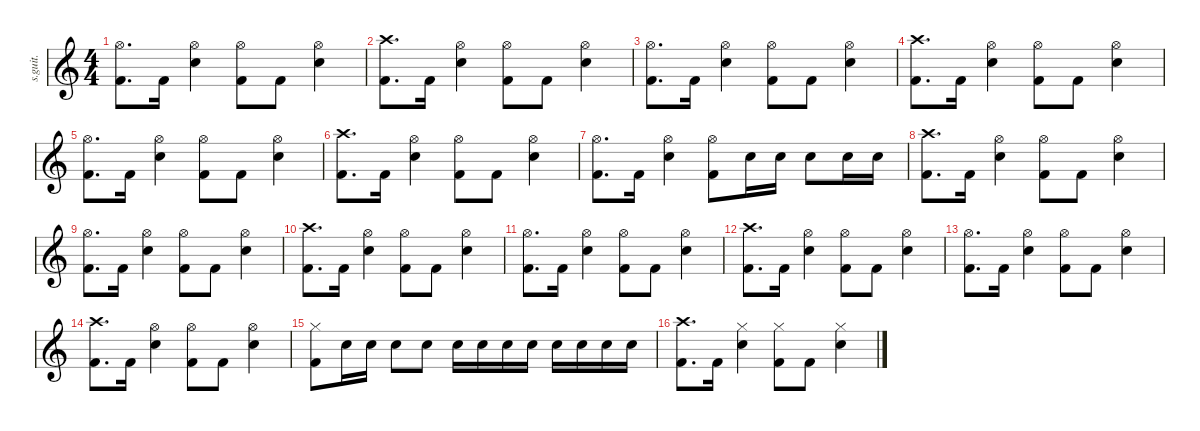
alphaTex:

\defaultSystemsLayout 4
\hideDynamics
\bracketExtendMode nobrackets
\track ("" "s.guit.") {instrument percussion}
\staff {score}
\articulation defaults
\ts (4 4)
\tempo (180 hide)
\clef g2
\ks c
("Kick (hit) 2" "Hi-Hat (open)").8{d dy f} "Kick (hit) 2".16 ("Snare (hit) 2" "Hi-Hat (open)").4 ("Kick (hit) 2" "Hi-Hat (open)").8 "Kick (hit) 2".8 ("Snare (hit) 2" "Hi-Hat (open)").4 |
("Kick (hit) 2" "Crash high (hit)").8{d} "Kick (hit) 2".16 ("Snare (hit) 2" "Hi-Hat (open)").4 ("Kick (hit) 2" "Hi-Hat (open)").8 "Kick (hit) 2".8 ("Snare (hit) 2" "Hi-Hat (open)").4 |
("Kick (hit) 2" "Hi-Hat (open)").8{d} "Kick (hit) 2".16 ("Snare (hit) 2" "Hi-Hat (open)").4 ("Kick (hit) 2" "Hi-Hat (open)").8 "Kick (hit) 2".8 ("Snare (hit) 2" "Hi-Hat (open)").4 |
("Kick (hit) 2" "Crash high (hit)").8{d} "Kick (hit) 2".16 ("Snare (hit) 2" "Hi-Hat (open)").4 ("Kick (hit) 2" "Hi-Hat (open)").8 "Kick (hit) 2".8 ("Snare (hit) 2" "Hi-Hat (open)").4 |
("Kick (hit) 2" "Hi-Hat (open)").8{d} "Kick (hit) 2".16 ("Snare (hit) 2" "Hi-Hat (open)").4 ("Kick (hit) 2" "Hi-Hat (open)").8 "Kick (hit) 2".8 ("Snare (hit) 2" "Hi-Hat (open)").4 |
("Kick (hit) 2" "Crash high (hit)").8{d} "Kick (hit) 2".16 ("Snare (hit) 2" "Hi-Hat (open)").4 ("Kick (hit) 2" "Hi-Hat (open)").8 "Kick (hit) 2".8 ("Snare (hit) 2" "Hi-Hat (open)").4 |
("Kick (hit) 2" "Hi-Hat (open)").8{d} "Kick (hit) 2".16 ("Snare (hit) 2" "Hi-Hat (open)").4 ("Kick (hit) 2" "Hi-Hat (open)").8 "Snare (hit) 2".16 "Snare (hit) 2".16 "Snare (hit) 2".8 "Snare (hit) 2".16 "Snare (hit) 2".16 |
("Kick (hit) 2" "Crash high (hit)").8{d} "Kick (hit) 2".16 ("Snare (hit) 2" "Hi-Hat (open)").4 ("Kick (hit) 2" "Hi-Hat (open)").8 "Kick (hit) 2".8 ("Snare (hit) 2" "Hi-Hat (open)").4 |
("Kick (hit) 2" "Hi-Hat (open)").8{d} "Kick (hit) 2".16 ("Snare (hit) 2" "Hi-Hat (open)").4 ("Kick (hit) 2" "Hi-Hat (open)").8 "Kick (hit) 2".8 ("Snare (hit) 2" "Hi-Hat (open)").4 |
("Kick (hit) 2" "Crash high (hit)").8{d} "Kick (hit) 2".16 ("Snare (hit) 2" "Hi-Hat (open)").4 ("Kick (hit) 2" "Hi-Hat (open)").8 "Kick (hit) 2".8 ("Snare (hit) 2" "Hi-Hat (open)").4 |
("Kick (hit) 2" "Hi-Hat (open)").8{d} "Kick (hit) 2".16 ("Snare (hit) 2" "Hi-Hat (open)").4 ("Kick (hit) 2" "Hi-Hat (open)").8 "Kick (hit) 2".8 ("Snare (hit) 2" "Hi-Hat (open)").4 |
("Kick (hit) 2" "Crash high (hit)").8{d} "Kick (hit) 2".16 ("Snare (hit) 2" "Hi-Hat (open)").4 ("Kick (hit) 2" "Hi-Hat (open)").8 "Kick (hit) 2".8 ("Snare (hit) 2" "Hi-Hat (open)").4 |
("Kick (hit) 2" "Hi-Hat (open)").8{d} "Kick (hit) 2".16 ("Snare (hit) 2" "Hi-Hat (open)").4 ("Kick (hit) 2" "Hi-Hat (open)").8 "Kick (hit) 2".8 ("Snare (hit) 2" "Hi-Hat (open)").4 |
("Kick (hit) 2" "Crash high (hit)").8{d} "Kick (hit) 2".16 ("Snare (hit) 2" "Hi-Hat (open)").4 ("Kick (hit) 2" "Hi-Hat (open)").8 "Kick (hit) 2".8 ("Snare (hit) 2" "Hi-Hat (open)").4 |
("Kick (hit) 2" "Hi-Hat (closed)").8 "Snare (hit) 2".16 "Snare (hit) 2".16 "Snare (hit) 2".8 "Snare (hit) 2".8 "Snare (hit) 2".16 "Snare (hit) 2".16 "Snare (hit) 2".16 "Snare (hit) 2".16 "Snare (hit) 2".16 "Snare (hit) 2".16 "Snare (hit) 2".16 "Snare (hit) 2".16 |
("Kick (hit) 2" "Crash high (hit)").8{d} "Kick (hit) 2".16 ("Snare (hit) 2" "Hi-Hat (closed)").4 ("Kick (hit) 2" "Hi-Hat (closed)").8 "Kick (hit) 2".8 ("Snare (hit) 2" "Hi-Hat (closed)").4
